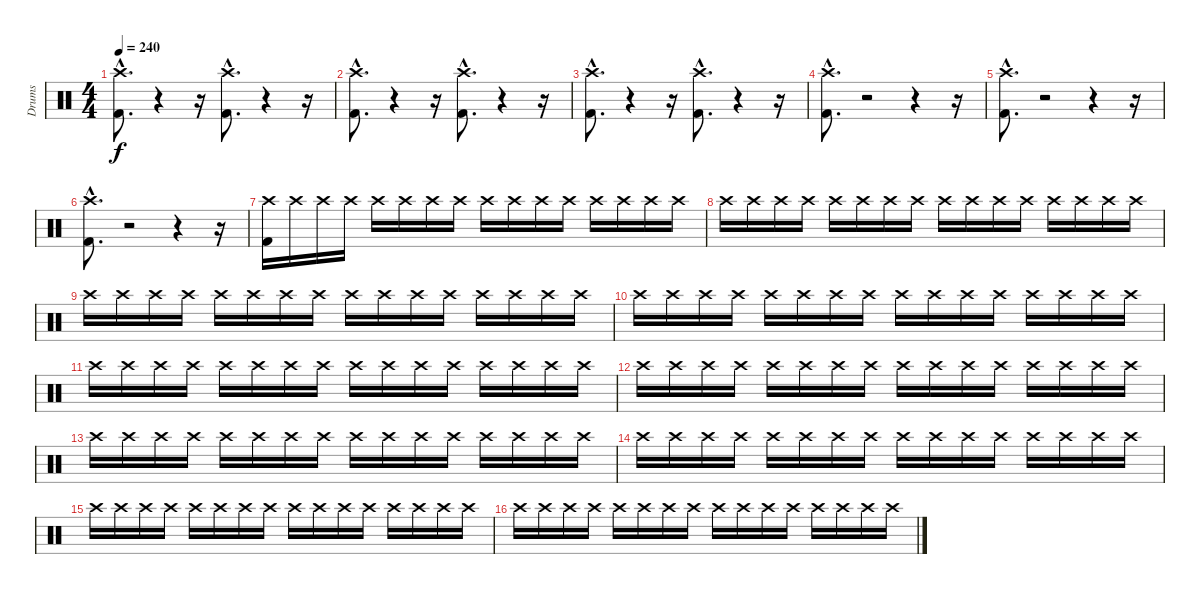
\track ("Drums" "Drums") {instrument percussion}
\staff {score}
\articulation defaults
\ts (4 4)
\tempo 240
\clef neutral
\ks c
("Kick (hit) 2"{hac} "Crash high (hit)"{hac}).8{d dy f} r.4 r.16 ("Kick (hit) 2"{hac} "Crash high (hit)"{hac}).8{d} r.4 r.16 |
("Kick (hit) 2"{hac} "Crash high (hit)"{hac}).8{d} r.4 r.16 ("Kick (hit) 2"{hac} "Crash high (hit)"{hac}).8{d} r.4 r.16 |
("Kick (hit) 2"{hac} "Crash high (hit)"{hac}).8{d} r.4 r.16 ("Kick (hit) 2"{hac} "Crash high (hit)"{hac}).8{d} r.4 r.16 |
("Kick (hit) 2"{hac} "Crash high (hit)"{hac}).8{d} r.2 r.4 r.16 |
("Kick (hit) 2"{hac} "Crash high (hit)"{hac}).8{d} r.2 r.4 r.16 |
("Kick (hit) 2"{hac} "Crash high (hit)"{hac}).8{d} r.2 r.4 r.16 |
("Crash high (hit)" "Kick (hit) 2").16 "Crash high (hit)".16 "Crash high (hit)".16 "Crash high (hit)".16 "Crash high (hit)".16 "Crash high (hit)".16 "Crash high (hit)".16 "Crash high (hit)".16 "Crash high (hit)".16 "Crash high (hit)".16 "Crash high (hit)".16 "Crash high (hit)".16 "Crash high (hit)".16 "Crash high (hit)".16 "Crash high (hit)".16 "Crash high (hit)".16 |
"Crash high (hit)".16 "Crash high (hit)".16 "Crash high (hit)".16 "Crash high (hit)".16 "Crash high (hit)".16 "Crash high (hit)".16 "Crash high (hit)".16 "Crash high (hit)".16 "Crash high (hit)".16 "Crash high (hit)".16 "Crash high (hit)".16 "Crash high (hit)".16 "Crash high (hit)".16 "Crash high (hit)".16 "Crash high (hit)".16 "Crash high (hit)".16 |
"Crash high (hit)".16 "Crash high (hit)".16 "Crash high (hit)".16 "Crash high (hit)".16 "Crash high (hit)".16 "Crash high (hit)".16 "Crash high (hit)".16 "Crash high (hit)".16 "Crash high (hit)".16 "Crash high (hit)".16 "Crash high (hit)".16 "Crash high (hit)".16 "Crash high (hit)".16 "Crash high (hit)".16 "Crash high (hit)".16 "Crash high (hit)".16 |
"Crash high (hit)".16 "Crash high (hit)".16 "Crash high (hit)".16 "Crash high (hit)".16 "Crash high (hit)".16 "Crash high (hit)".16 "Crash high (hit)".16 "Crash high (hit)".16 "Crash high (hit)".16 "Crash high (hit)".16 "Crash high (hit)".16 "Crash high (hit)".16 "Crash high (hit)".16 "Crash high (hit)".16 "Crash high (hit)".16 "Crash high (hit)".16 |
"Crash high (hit)".16 "Crash high (hit)".16 "Crash high (hit)".16 "Crash high (hit)".16 "Crash high (hit)".16 "Crash high (hit)".16 "Crash high (hit)".16 "Crash high (hit)".16 "Crash high (hit)".16 "Crash high (hit)".16 "Crash high (hit)".16 "Crash high (hit)".16 "Crash high (hit)".16 "Crash high (hit)".16 "Crash high (hit)".16 "Crash high (hit)".16 |
"Crash high (hit)".16 "Crash high (hit)".16 "Crash high (hit)".16 "Crash high (hit)".16 "Crash high (hit)".16 "Crash high (hit)".16 "Crash high (hit)".16 "Crash high (hit)".16 "Crash high (hit)".16 "Crash high (hit)".16 "Crash high (hit)".16 "Crash high (hit)".16 "Crash high (hit)".16 "Crash high (hit)".16 "Crash high (hit)".16 "Crash high (hit)".16 |
"Crash high (hit)".16 "Crash high (hit)".16 "Crash high (hit)".16 "Crash high (hit)".16 "Crash high (hit)".16 "Crash high (hit)".16 "Crash high (hit)".16 "Crash high (hit)".16 "Crash high (hit)".16 "Crash high (hit)".16 "Crash high (hit)".16 "Crash high (hit)".16 "Crash high (hit)".16 "Crash high (hit)".16 "Crash high (hit)".16 "Crash high (hit)".16 |
"Crash high (hit)".16 "Crash high (hit)".16 "Crash high (hit)".16 "Crash high (hit)".16 "Crash high (hit)".16 "Crash high (hit)".16 "Crash high (hit)".16 "Crash high (hit)".16 "Crash high (hit)".16 "Crash high (hit)".16 "Crash high (hit)".16 "Crash high (hit)".16 "Crash high (hit)".16 "Crash high (hit)".16 "Crash high (hit)".16 "Crash high (hit)".16 |
"Crash high (hit)".16 "Crash high (hit)".16 "Crash high (hit)".16 "Crash high (hit)".16 "Crash high (hit)".16 "Crash high (hit)".16 "Crash high (hit)".16 "Crash high (hit)".16 "Crash high (hit)".16 "Crash high (hit)".16 "Crash high (hit)".16 "Crash high (hit)".16 "Crash high (hit)".16 "Crash high (hit)".16 "Crash high (hit)".16 "Crash high (hit)".16 |
"Crash high (hit)".16 "Crash high (hit)".16 "Crash high (hit)".16 "Crash high (hit)".16 "Crash high (hit)".16 "Crash high (hit)".16 "Crash high (hit)".16 "Crash high (hit)".16 "Crash high (hit)".16 "Crash high (hit)".16 "Crash high (hit)".16 "Crash high (hit)".16 "Crash high (hit)".16 "Crash high (hit)".16 "Crash high (hit)".16 "Crash high (hit)".16
